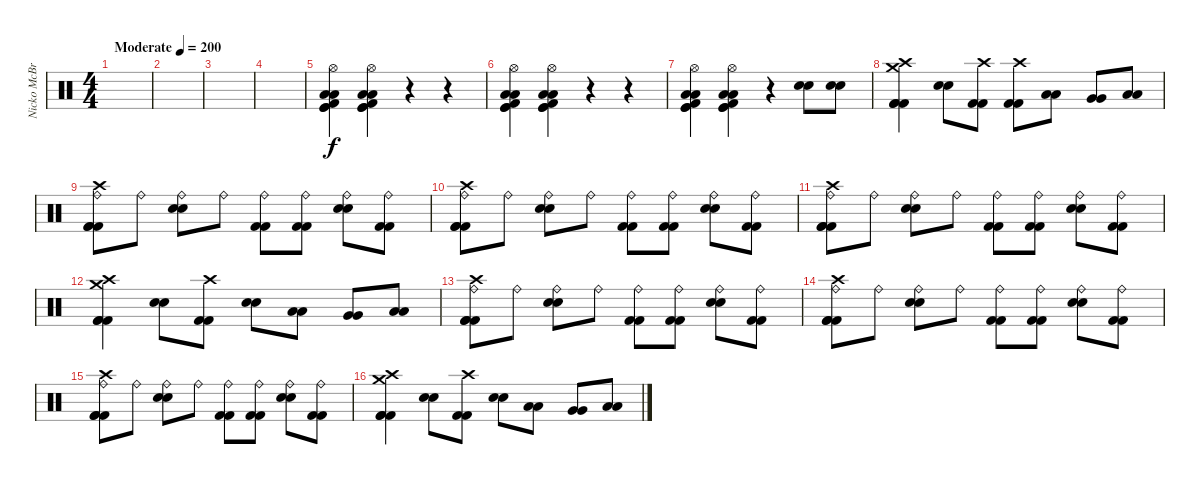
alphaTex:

\track ("Nicko McBrain" "Nicko McBr") {instrument percussion}
\staff {score}
\articulation defaults
\ts (4 4)
\tempo (200 "Moderate")
\clef neutral
\ks c
|
|
|
|
("Hi-Hat (open)" "Kick (hit) 2" "Low Tom (hit)" "Low Tom (hit)" "Kick (hit)" "Kick (hit)").4 ("Hi-Hat (open)" "Kick (hit) 2" "Low Tom (hit)" "Low Tom (hit)" "Kick (hit)" "Kick (hit)").4 r.4 r.4 |
("Hi-Hat (open)" "Kick (hit) 2" "Low Tom (hit)" "Low Tom (hit)" "Kick (hit)" "Kick (hit)").4 ("Hi-Hat (open)" "Kick (hit) 2" "Low Tom (hit)" "Low Tom (hit)" "Kick (hit)" "Kick (hit)").4 r.4 r.4 |
("Hi-Hat (open)" "Kick (hit) 2" "Low Tom (hit)" "Low Tom (hit)" "Kick (hit)" "Kick (hit)").4 ("Hi-Hat (open)" "Kick (hit) 2" "Low Tom (hit)" "Low Tom (hit)" "Kick (hit)" "Kick (hit)").4 r.4 ("Snare (hit) 2" "Snare (hit) 2").8 ("Snare (hit) 2" "Snare (hit) 2").8 |
("Crash medium (hit)" "Crash high (hit)" "Kick (hit) 2" "Kick (hit) 2" "Kick (hit) 2").4 ("Snare (hit) 2" "Snare (hit) 2").8 ("Crash high (hit)" "Kick (hit) 2" "Kick (hit) 2").8 ("Crash high (hit)" "Kick (hit) 2" "Kick (hit) 2").8 ("Low Tom (hit)" "Low Tom (hit)").8 ("Very Low Tom (hit)" "Very Low Tom (hit)").8 ("Low Floor Tom (hit)" "Low Floor Tom (hit)").8 |
("Crash high (hit)" "Ride (bell)" "Kick (hit) 2" "Kick (hit) 2" "Kick (hit) 2").8 "Ride (bell)".8 ("Ride (bell)" "Snare (hit) 2" "Snare (hit) 2").8 "Ride (bell)".8 ("Ride (bell)" "Kick (hit) 2" "Kick (hit) 2").8 ("Ride (bell)" "Kick (hit) 2" "Kick (hit) 2").8 ("Ride (bell)" "Snare (hit) 2" "Snare (hit) 2").8 ("Ride (bell)" "Kick (hit) 2" "Kick (hit) 2").8 |
("Crash high (hit)" "Ride (bell)" "Kick (hit) 2" "Kick (hit) 2" "Kick (hit) 2").8 "Ride (bell)".8 ("Ride (bell)" "Snare (hit) 2" "Snare (hit) 2").8 "Ride (bell)".8 ("Ride (bell)" "Kick (hit) 2" "Kick (hit) 2").8 ("Ride (bell)" "Kick (hit) 2" "Kick (hit) 2").8 ("Ride (bell)" "Snare (hit) 2" "Snare (hit) 2").8 ("Ride (bell)" "Kick (hit) 2" "Kick (hit) 2").8 |
("Crash high (hit)" "Ride (bell)" "Kick (hit) 2" "Kick (hit) 2" "Kick (hit) 2").8 "Ride (bell)".8 ("Ride (bell)" "Snare (hit) 2" "Snare (hit) 2").8 "Ride (bell)".8 ("Ride (bell)" "Kick (hit) 2" "Kick (hit) 2").8 ("Ride (bell)" "Kick (hit) 2" "Kick (hit) 2").8 ("Ride (bell)" "Snare (hit) 2" "Snare (hit) 2").8 ("Ride (bell)" "Kick (hit) 2" "Kick (hit) 2").8 |
("Crash medium (hit)" "Crash high (hit)" "Kick (hit) 2" "Kick (hit) 2" "Kick (hit) 2").4 ("Snare (hit) 2" "Snare (hit) 2").8 ("Crash high (hit)" "Kick (hit) 2" "Kick (hit) 2").8 ("Snare (hit) 2" "Snare (hit) 2").8 ("Low Tom (hit)" "Low Tom (hit)").8 ("Very Low Tom (hit)" "Very Low Tom (hit)").8 ("Low Floor Tom (hit)" "Low Floor Tom (hit)").8 |
("Crash high (hit)" "Ride (bell)" "Kick (hit) 2" "Kick (hit) 2" "Kick (hit) 2").8 "Ride (bell)".8 ("Ride (bell)" "Snare (hit) 2" "Snare (hit) 2").8 "Ride (bell)".8 ("Ride (bell)" "Kick (hit) 2" "Kick (hit) 2").8 ("Ride (bell)" "Kick (hit) 2" "Kick (hit) 2").8 ("Ride (bell)" "Snare (hit) 2" "Snare (hit) 2").8 ("Ride (bell)" "Kick (hit) 2" "Kick (hit) 2").8 |
("Crash high (hit)" "Ride (bell)" "Kick (hit) 2" "Kick (hit) 2" "Kick (hit) 2").8 "Ride (bell)".8 ("Ride (bell)" "Snare (hit) 2" "Snare (hit) 2").8 "Ride (bell)".8 ("Ride (bell)" "Kick (hit) 2" "Kick (hit) 2").8 ("Ride (bell)" "Kick (hit) 2" "Kick (hit) 2").8 ("Ride (bell)" "Snare (hit) 2" "Snare (hit) 2").8 ("Ride (bell)" "Kick (hit) 2" "Kick (hit) 2").8 |
("Crash high (hit)" "Ride (bell)" "Kick (hit) 2" "Kick (hit) 2" "Kick (hit) 2").8 "Ride (bell)".8 ("Ride (bell)" "Snare (hit) 2" "Snare (hit) 2").8 "Ride (bell)".8 ("Ride (bell)" "Kick (hit) 2" "Kick (hit) 2").8 ("Ride (bell)" "Kick (hit) 2" "Kick (hit) 2").8 ("Ride (bell)" "Snare (hit) 2" "Snare (hit) 2").8 ("Ride (bell)" "Kick (hit) 2" "Kick (hit) 2").8 |
("Crash medium (hit)" "Crash high (hit)" "Kick (hit) 2" "Kick (hit) 2" "Kick (hit) 2").4 ("Snare (hit) 2" "Snare (hit) 2").8 ("Crash high (hit)" "Kick (hit) 2" "Kick (hit) 2").8 ("Snare (hit) 2" "Snare (hit) 2").8 ("Low Tom (hit)" "Low Tom (hit)").8 ("Very Low Tom (hit)" "Very Low Tom (hit)").8 ("Low Floor Tom (hit)" "Low Floor Tom (hit)").8
